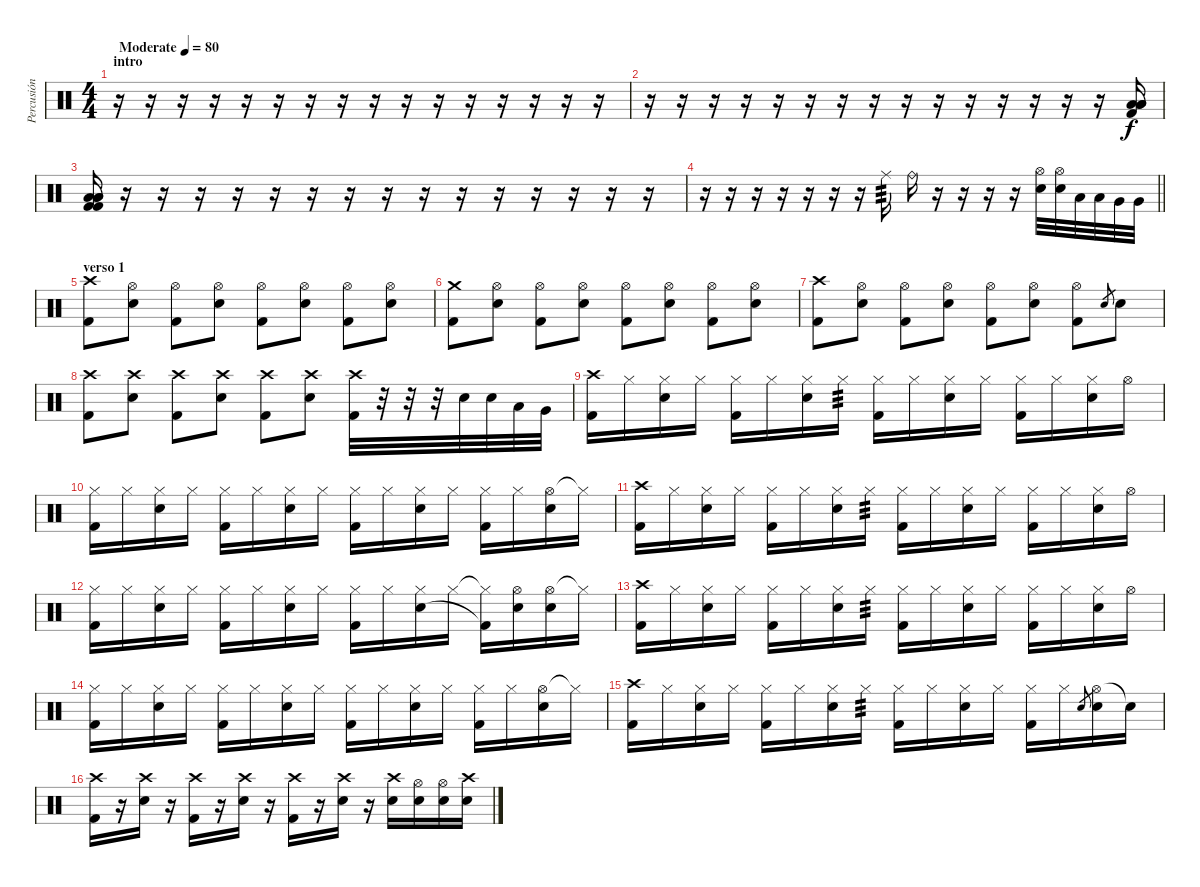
\track ("Percusión" "Percusión") {instrument percussion}
\staff {score}
\articulation defaults
\ts (4 4)
\section ("" "intro")
\tempo (80 "Moderate")
\clef neutral
\ks c
r.16{dy f} r.16 r.16 r.16 r.16 r.16 r.16 r.16 r.16 r.16 r.16 r.16 r.16 r.16 r.16 r.16 |
r.16 r.16 r.16 r.16 r.16 r.16 r.16 r.16 r.16 r.16 r.16 r.16 r.16 r.16 r.16 ("Low Floor Tom (hit)" "Low Floor Tom (hit)" "Kick (hit) 2" "Low Floor Tom (hit)").16 |
("Low Floor Tom (hit)" "Low Floor Tom (hit)" "Low Floor Tom (hit)" "Kick (hit) 2" "Kick (hit) 2").16 r.16 r.16 r.16 r.16 r.16 r.16 r.16 r.16 r.16 r.16 r.16 r.16 r.16 r.16 r.16 |
\barLineRight lightlight
r.16 r.16 r.16 r.16 r.16 r.16 r.16 "Ride (middle)".16{tp 3} "Ride (bell)".16 r.16 r.16 r.16 r.16 ("Hi-Hat (open)" "Electric Snare (hit)").32 ("Hi-Hat (open)" "Electric Snare (hit)").32 "Low Tom (hit)".32 "Low Tom (hit)".32 "Very Low Tom (hit)".32 "Very Low Tom (hit)".32 |
\section ("" "verso 1")
("Crash high (hit)" "Kick (hit) 2").8 ("Hi-Hat (open)" "Electric Snare (hit)").8 ("Hi-Hat (open)" "Kick (hit) 2").8 ("Hi-Hat (open)" "Electric Snare (hit)").8 ("Hi-Hat (open)" "Kick (hit) 2").8 ("Hi-Hat (open)" "Electric Snare (hit)").8 ("Hi-Hat (open)" "Kick (hit) 2").8 ("Hi-Hat (open)" "Electric Snare (hit)").8 |
("Crash medium (hit)" "Kick (hit) 2").8 ("Hi-Hat (open)" "Electric Snare (hit)").8 ("Hi-Hat (open)" "Kick (hit) 2").8 ("Hi-Hat (open)" "Electric Snare (hit)").8 ("Hi-Hat (open)" "Kick (hit) 2").8 ("Hi-Hat (open)" "Electric Snare (hit)").8 ("Hi-Hat (open)" "Kick (hit) 2").8 ("Hi-Hat (open)" "Electric Snare (hit)").8 |
("Crash high (hit)" "Kick (hit) 2").8 ("Hi-Hat (open)" "Electric Snare (hit)").8 ("Hi-Hat (open)" "Kick (hit) 2").8 ("Hi-Hat (open)" "Electric Snare (hit)").8 ("Hi-Hat (open)" "Kick (hit) 2").8 ("Hi-Hat (open)" "Electric Snare (hit)").8 ("Hi-Hat (open)" "Kick (hit) 2").8 "Electric Snare (hit)".8{gr} "Electric Snare (hit)".8 |
("Crash high (hit)" "Kick (hit) 2").8 ("Crash high (hit)" "Electric Snare (hit)").8 ("Crash high (hit)" "Kick (hit) 2").8 ("Crash high (hit)" "Electric Snare (hit)").8 ("Crash high (hit)" "Kick (hit) 2").8 ("Crash high (hit)" "Electric Snare (hit)").8 ("Crash high (hit)" "Kick (hit) 2").32 r.32 r.32 r.32 "Electric Snare (hit)".32 "Electric Snare (hit)".32 "Low Tom (hit)".32 "Very Low Tom (hit)".32 |
("Crash high (hit)" "Kick (hit) 2").16 "Hi-Hat (closed)".16 ("Hi-Hat (closed)" "Electric Snare (hit)").16 "Hi-Hat (closed)".16 ("Hi-Hat (closed)" "Kick (hit) 2").16 "Hi-Hat (closed)".16 ("Hi-Hat (closed)" "Electric Snare (hit)").16 "Hi-Hat (closed)".16{tp 3} ("Hi-Hat (closed)" "Kick (hit) 2").16 "Hi-Hat (closed)".16 ("Hi-Hat (closed)" "Electric Snare (hit)").16 "Hi-Hat (closed)".16 ("Hi-Hat (closed)" "Kick (hit) 2").16 "Hi-Hat (closed)".16 ("Hi-Hat (closed)" "Electric Snare (hit)").16 "Hi-Hat (open)".16 |
("Hi-Hat (closed)" "Kick (hit) 2").16 "Hi-Hat (closed)".16 ("Hi-Hat (closed)" "Electric Snare (hit)").16 "Hi-Hat (closed)".16 ("Hi-Hat (closed)" "Kick (hit) 2").16 "Hi-Hat (closed)".16 ("Hi-Hat (closed)" "Electric Snare (hit)").16 "Hi-Hat (closed)".16 ("Hi-Hat (closed)" "Kick (hit) 2").16 "Hi-Hat (closed)".16 ("Hi-Hat (closed)" "Electric Snare (hit)").16 "Hi-Hat (closed)".16 ("Hi-Hat (closed)" "Kick (hit) 2").16 "Hi-Hat (closed)".16 ("Hi-Hat (open)" "Electric Snare (hit)").16 "Hi-Hat (closed)"{t}.16 |
("Crash high (hit)" "Kick (hit) 2").16 "Hi-Hat (closed)".16 ("Hi-Hat (closed)" "Electric Snare (hit)").16 "Hi-Hat (closed)".16 ("Hi-Hat (closed)" "Kick (hit) 2").16 "Hi-Hat (closed)".16 ("Hi-Hat (closed)" "Electric Snare (hit)").16 "Hi-Hat (closed)".16{tp 3} ("Hi-Hat (closed)" "Kick (hit) 2").16 "Hi-Hat (closed)".16 ("Hi-Hat (closed)" "Electric Snare (hit)").16 "Hi-Hat (closed)".16 ("Hi-Hat (closed)" "Kick (hit) 2").16 "Hi-Hat (closed)".16 ("Hi-Hat (closed)" "Electric Snare (hit)").16 "Hi-Hat (open)".16 |
("Hi-Hat (closed)" "Kick (hit) 2").16 "Hi-Hat (closed)".16 ("Hi-Hat (closed)" "Electric Snare (hit)").16 "Hi-Hat (closed)".16 ("Hi-Hat (closed)" "Kick (hit) 2").16 "Hi-Hat (closed)".16 ("Hi-Hat (closed)" "Electric Snare (hit)").16 "Hi-Hat (closed)".16 ("Hi-Hat (closed)" "Kick (hit) 2").16 "Hi-Hat (closed)".16 ("Hi-Hat (closed)" "Electric Snare (hit)").16 "Hi-Hat (closed)".16 ("Hi-Hat (closed)"{t} "Kick (hit) 2"{t}).16 ("Hi-Hat (open)" "Electric Snare (hit)").16 ("Hi-Hat (open)" "Electric Snare (hit)").16 "Hi-Hat (closed)"{t}.16 |
("Crash high (hit)" "Kick (hit) 2").16 "Hi-Hat (closed)".16 ("Hi-Hat (closed)" "Electric Snare (hit)").16 "Hi-Hat (closed)".16 ("Hi-Hat (closed)" "Kick (hit) 2").16 "Hi-Hat (closed)".16 ("Hi-Hat (closed)" "Electric Snare (hit)").16 "Hi-Hat (closed)".16{tp 3} ("Hi-Hat (closed)" "Kick (hit) 2").16 "Hi-Hat (closed)".16 ("Hi-Hat (closed)" "Electric Snare (hit)").16 "Hi-Hat (closed)".16 ("Hi-Hat (closed)" "Kick (hit) 2").16 "Hi-Hat (closed)".16 ("Hi-Hat (closed)" "Electric Snare (hit)").16 "Hi-Hat (open)".16 |
("Hi-Hat (closed)" "Kick (hit) 2").16 "Hi-Hat (closed)".16 ("Hi-Hat (closed)" "Electric Snare (hit)").16 "Hi-Hat (closed)".16 ("Hi-Hat (closed)" "Kick (hit) 2").16 "Hi-Hat (closed)".16 ("Hi-Hat (closed)" "Electric Snare (hit)").16 "Hi-Hat (closed)".16 ("Hi-Hat (closed)" "Kick (hit) 2").16 "Hi-Hat (closed)".16 ("Hi-Hat (closed)" "Electric Snare (hit)").16 "Hi-Hat (closed)".16 ("Hi-Hat (closed)" "Kick (hit) 2").16 "Hi-Hat (closed)".16 ("Hi-Hat (open)" "Electric Snare (hit)").16 "Hi-Hat (closed)"{t}.16 |
("Crash high (hit)" "Kick (hit) 2").16 "Hi-Hat (closed)".16 ("Hi-Hat (closed)" "Electric Snare (hit)").16 "Hi-Hat (closed)".16 ("Hi-Hat (closed)" "Kick (hit) 2").16 "Hi-Hat (closed)".16 ("Hi-Hat (closed)" "Electric Snare (hit)").16 "Hi-Hat (closed)".16{tp 3} ("Hi-Hat (closed)" "Kick (hit) 2").16 "Hi-Hat (closed)".16 ("Hi-Hat (closed)" "Electric Snare (hit)").16 "Hi-Hat (closed)".16 ("Hi-Hat (closed)" "Kick (hit) 2").16 "Hi-Hat (closed)".16 "Electric Snare (hit)".8{gr} ("Hi-Hat (open)" "Electric Snare (hit)").16 "Snare (hit)"{t}.16 |
("Crash high (hit)" "Kick (hit) 2").16 r.16 ("Crash high (hit)" "Electric Snare (hit)").16 r.16 ("Crash high (hit)" "Kick (hit) 2").16 r.16 ("Crash high (hit)" "Electric Snare (hit)").16 r.16 ("Crash high (hit)" "Kick (hit) 2").16 r.16 ("Crash high (hit)" "Electric Snare (hit)").16 r.16 ("Crash high (hit)" "Electric Snare (hit)").16 ("Hi-Hat (open)" "Electric Snare (hit)").16 ("Hi-Hat (open)" "Electric Snare (hit)").16 ("Crash high (hit)" "Electric Snare (hit)").16
